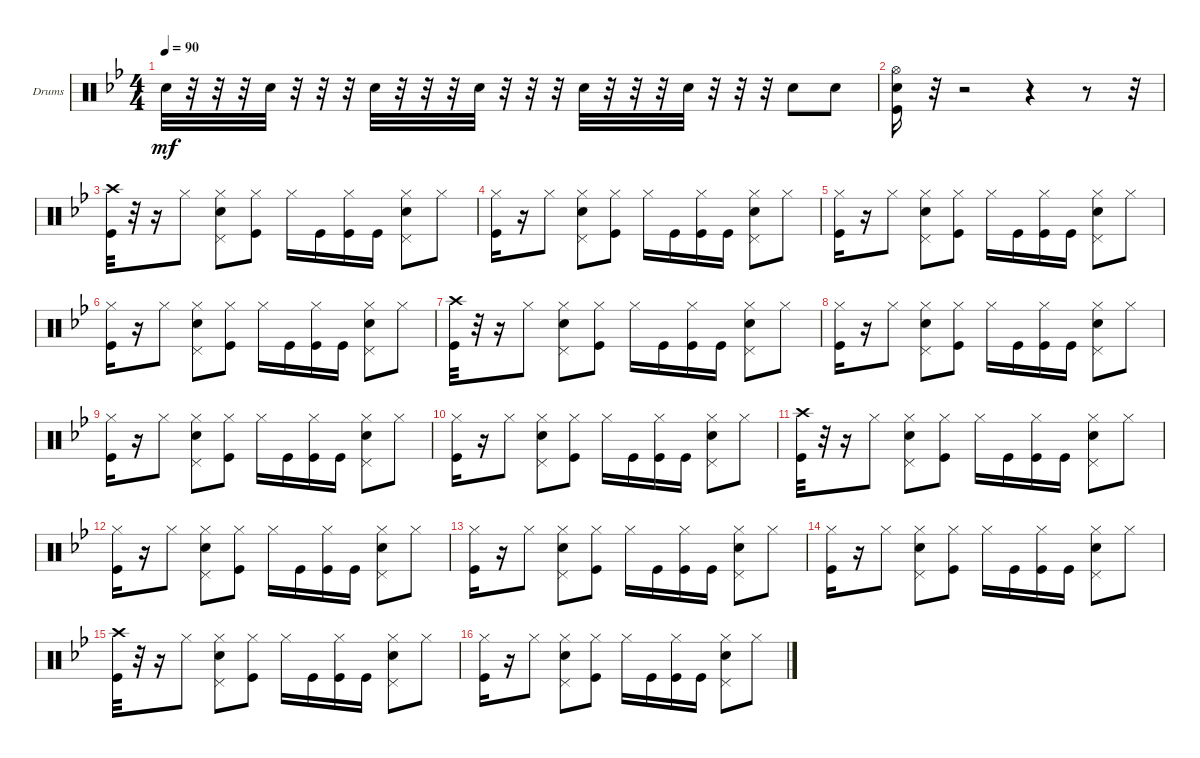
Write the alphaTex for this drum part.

\bracketExtendMode groupsimilarinstruments
\firstSystemTrackNameOrientation horizontal
\otherSystemsTrackNameOrientation horizontal
\track ("Drumkit" "Drums") {instrument percussion}
\staff {score}
\articulation defaults
\ts (4 4)
\tempo 90
\clef neutral
\ks bb "Snare (hit) 2".32{dy mf}
r.32 r.32 r.32 "Snare (hit) 2".32 r.32 r.32 r.32 "Snare (hit) 2".32 r.32 r.32 r.32 "Snare (hit) 2".32 r.32 r.32 r.32 "Snare (hit) 2".32 r.32 r.32 r.32 "Snare (hit) 2".32 r.32 r.32 r.32 "Snare (hit) 2".8 "Snare (hit) 2".8 |
("Kick (hit)" "Hi-Hat (open)" "Snare (hit) 2").16 r.32 r.2 r.4 r.8 r.32 |
("Kick (hit)" "Crash high (hit)").32 r.32 r.16 "Hi-Hat (closed)".8 ("Hi-Hat (closed)" "Pedal Hi-Hat (hit)" "Snare (hit) 2").8 ("Hi-Hat (closed)" "Kick (hit)").8 "Hi-Hat (closed)".16 "Kick (hit)".16 ("Hi-Hat (closed)" "Kick (hit)").16 "Kick (hit)".16 ("Snare (hit) 2" "Hi-Hat (closed)" "Pedal Hi-Hat (hit)").8 "Hi-Hat (closed)".8 |
("Hi-Hat (closed)" "Kick (hit)").16 r.16 "Hi-Hat (closed)".8 ("Hi-Hat (closed)" "Pedal Hi-Hat (hit)" "Snare (hit) 2").8 ("Kick (hit)" "Hi-Hat (closed)").8 "Hi-Hat (closed)".16 "Kick (hit)".16 ("Hi-Hat (closed)" "Kick (hit)").16 "Kick (hit)".16 ("Snare (hit) 2" "Hi-Hat (closed)" "Pedal Hi-Hat (hit)").8 "Hi-Hat (closed)".8 |
("Hi-Hat (closed)" "Kick (hit)").16 r.16 "Hi-Hat (closed)".8 ("Pedal Hi-Hat (hit)" "Hi-Hat (closed)" "Snare (hit) 2").8 ("Hi-Hat (closed)" "Kick (hit)").8 "Hi-Hat (closed)".16 "Kick (hit)".16 ("Hi-Hat (closed)" "Kick (hit)").16 "Kick (hit)".16 ("Hi-Hat (closed)" "Pedal Hi-Hat (hit)" "Snare (hit) 2").8 "Hi-Hat (closed)".8 |
("Hi-Hat (closed)" "Kick (hit)").16 r.16 "Hi-Hat (closed)".8 ("Hi-Hat (closed)" "Snare (hit) 2" "Pedal Hi-Hat (hit)").8 ("Kick (hit)" "Hi-Hat (closed)").8 "Hi-Hat (closed)".16 "Kick (hit)".16 ("Hi-Hat (closed)" "Kick (hit)").16 "Kick (hit)".16 ("Snare (hit) 2" "Pedal Hi-Hat (hit)" "Hi-Hat (closed)").8 "Hi-Hat (closed)".8 |
("Kick (hit)" "Crash high (hit)").32 r.32 r.16 "Hi-Hat (closed)".8 ("Pedal Hi-Hat (hit)" "Snare (hit) 2" "Hi-Hat (closed)").8 ("Hi-Hat (closed)" "Kick (hit)").8 "Hi-Hat (closed)".16 "Kick (hit)".16 ("Kick (hit)" "Hi-Hat (closed)").16 "Kick (hit)".16 ("Hi-Hat (closed)" "Snare (hit) 2" "Pedal Hi-Hat (hit)").8 "Hi-Hat (closed)".8 |
("Hi-Hat (closed)" "Kick (hit)").16 r.16 "Hi-Hat (closed)".8 ("Hi-Hat (closed)" "Pedal Hi-Hat (hit)" "Snare (hit) 2").8 ("Kick (hit)" "Hi-Hat (closed)").8 "Hi-Hat (closed)".16 "Kick (hit)".16 ("Hi-Hat (closed)" "Kick (hit)").16 "Kick (hit)".16 ("Pedal Hi-Hat (hit)" "Hi-Hat (closed)" "Snare (hit) 2").8 "Hi-Hat (closed)".8 |
("Hi-Hat (closed)" "Kick (hit)").16 r.16 "Hi-Hat (closed)".8 ("Snare (hit) 2" "Pedal Hi-Hat (hit)" "Hi-Hat (closed)").8 ("Hi-Hat (closed)" "Kick (hit)").8 "Hi-Hat (closed)".16 "Kick (hit)".16 ("Kick (hit)" "Hi-Hat (closed)").16 "Kick (hit)".16 ("Pedal Hi-Hat (hit)" "Hi-Hat (closed)" "Snare (hit) 2").8 "Hi-Hat (closed)".8 |
("Kick (hit)" "Hi-Hat (closed)").16 r.16 "Hi-Hat (closed)".8 ("Hi-Hat (closed)" "Pedal Hi-Hat (hit)" "Snare (hit) 2").8 ("Kick (hit)" "Hi-Hat (closed)").8 "Hi-Hat (closed)".16 "Kick (hit)".16 ("Hi-Hat (closed)" "Kick (hit)").16 "Kick (hit)".16 ("Pedal Hi-Hat (hit)" "Hi-Hat (closed)" "Snare (hit) 2").8 "Hi-Hat (closed)".8 |
("Kick (hit)" "Crash high (hit)").32 r.32 r.16 "Hi-Hat (closed)".8 ("Hi-Hat (closed)" "Pedal Hi-Hat (hit)" "Snare (hit) 2").8 ("Hi-Hat (closed)" "Kick (hit)").8 "Hi-Hat (closed)".16 "Kick (hit)".16 ("Hi-Hat (closed)" "Kick (hit)").16 "Kick (hit)".16 ("Snare (hit) 2" "Pedal Hi-Hat (hit)" "Hi-Hat (closed)").8 "Hi-Hat (closed)".8 |
("Hi-Hat (closed)" "Kick (hit)").16 r.16 "Hi-Hat (closed)".8 ("Pedal Hi-Hat (hit)" "Hi-Hat (closed)" "Snare (hit) 2").8 ("Kick (hit)" "Hi-Hat (closed)").8 "Hi-Hat (closed)".16 "Kick (hit)".16 ("Hi-Hat (closed)" "Kick (hit)").16 "Kick (hit)".16 ("Snare (hit) 2" "Hi-Hat (closed)" "Pedal Hi-Hat (hit)").8 "Hi-Hat (closed)".8 |
("Kick (hit)" "Hi-Hat (closed)").16 r.16 "Hi-Hat (closed)".8 ("Snare (hit) 2" "Pedal Hi-Hat (hit)" "Hi-Hat (closed)").8 ("Hi-Hat (closed)" "Kick (hit)").8 "Hi-Hat (closed)".16 "Kick (hit)".16 ("Hi-Hat (closed)" "Kick (hit)").16 "Kick (hit)".16 ("Pedal Hi-Hat (hit)" "Hi-Hat (closed)" "Snare (hit) 2").8 "Hi-Hat (closed)".8 |
("Hi-Hat (closed)" "Kick (hit)").16 r.16 "Hi-Hat (closed)".8 ("Snare (hit) 2" "Pedal Hi-Hat (hit)" "Hi-Hat (closed)").8 ("Hi-Hat (closed)" "Kick (hit)").8 "Hi-Hat (closed)".16 "Kick (hit)".16 ("Kick (hit)" "Hi-Hat (closed)").16 "Kick (hit)".16 ("Hi-Hat (closed)" "Pedal Hi-Hat (hit)" "Snare (hit) 2").8 "Hi-Hat (closed)".8 |
("Kick (hit)" "Crash high (hit)").32 r.32 r.16 "Hi-Hat (closed)".8 ("Hi-Hat (closed)" "Snare (hit) 2" "Pedal Hi-Hat (hit)").8 ("Kick (hit)" "Hi-Hat (closed)").8 "Hi-Hat (closed)".16 "Kick (hit)".16 ("Kick (hit)" "Hi-Hat (closed)").16 "Kick (hit)".16 ("Snare (hit) 2" "Pedal Hi-Hat (hit)" "Hi-Hat (closed)").8 "Hi-Hat (closed)".8 |
("Kick (hit)" "Hi-Hat (closed)").16 r.16 "Hi-Hat (closed)".8 ("Pedal Hi-Hat (hit)" "Hi-Hat (closed)" "Snare (hit) 2").8 ("Hi-Hat (closed)" "Kick (hit)").8 "Hi-Hat (closed)".16 "Kick (hit)".16 ("Kick (hit)" "Hi-Hat (closed)").16 "Kick (hit)".16 ("Hi-Hat (closed)" "Pedal Hi-Hat (hit)" "Snare (hit) 2").8 "Hi-Hat (closed)".8
